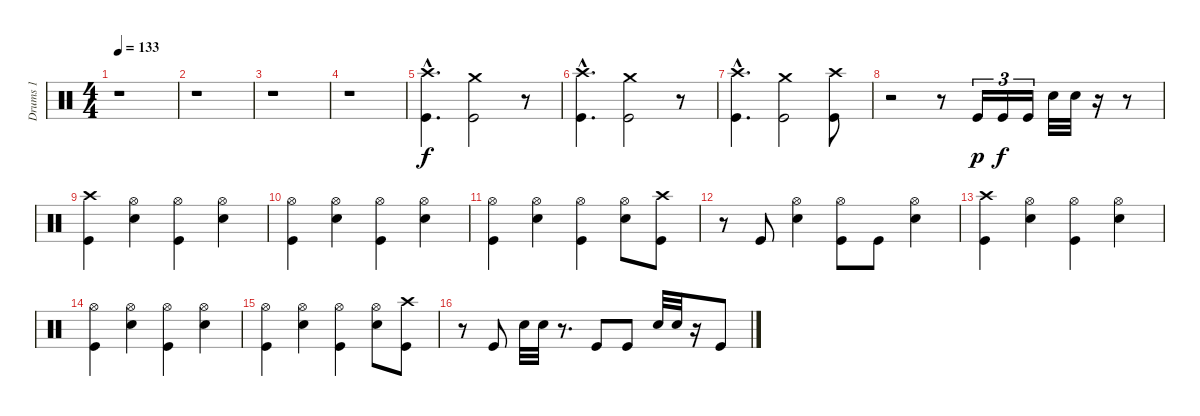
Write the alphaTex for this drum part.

\track ("Drums 1" "Drums 1") {instrument percussion}
\staff {score}
\articulation defaults
\ts (4 4)
\tempo 133
\clef neutral
\ks c
r.1{dy f} |
r.1 |
r.1 |
r.1 |
("Crash high (hit)"{hac} "Kick (hit)"{hac}).4{d} ("Crash medium (hit)" "Kick (hit)").2 r.8 |
("Crash high (hit)"{hac} "Kick (hit)"{hac}).4{d} ("Crash medium (hit)" "Kick (hit)").2 r.8 |
("Crash high (hit)"{hac} "Kick (hit)"{hac}).4{d} ("Crash medium (hit)" "Kick (hit)").2 ("Crash high (hit)" "Kick (hit)").8 |
r.2 r.8 "Kick (hit)".16{tu (3 2) dy p} "Kick (hit)".16{tu (3 2) dy f} "Kick (hit)".16{tu (3 2)} "Snare (hit) 2".32 "Snare (hit) 2".32 r.16 r.8 |
("Crash high (hit)" "Kick (hit)").4 ("Hi-Hat (open)" "Snare (hit) 2").4 ("Hi-Hat (open)" "Kick (hit)").4 ("Hi-Hat (open)" "Snare (hit) 2").4 |
("Hi-Hat (open)" "Kick (hit)").4 ("Hi-Hat (open)" "Snare (hit) 2").4 ("Hi-Hat (open)" "Kick (hit)").4 ("Hi-Hat (open)" "Snare (hit) 2").4 |
("Hi-Hat (open)" "Kick (hit)").4 ("Hi-Hat (open)" "Snare (hit) 2").4 ("Hi-Hat (open)" "Kick (hit)").4 ("Hi-Hat (open)" "Snare (hit) 2").8 ("Crash high (hit)" "Kick (hit)").8 |
r.8 "Kick (hit)".8 ("Hi-Hat (open)" "Snare (hit) 2").4 ("Hi-Hat (open)" "Kick (hit)").8 "Kick (hit)".8 ("Hi-Hat (open)" "Snare (hit) 2").4 |
("Crash high (hit)" "Kick (hit)").4 ("Hi-Hat (open)" "Snare (hit) 2").4 ("Hi-Hat (open)" "Kick (hit)").4 ("Hi-Hat (open)" "Snare (hit) 2").4 |
("Hi-Hat (open)" "Kick (hit)").4 ("Hi-Hat (open)" "Snare (hit) 2").4 ("Hi-Hat (open)" "Kick (hit)").4 ("Hi-Hat (open)" "Snare (hit) 2").4 |
("Hi-Hat (open)" "Kick (hit)").4 ("Hi-Hat (open)" "Snare (hit) 2").4 ("Hi-Hat (open)" "Kick (hit)").4 ("Hi-Hat (open)" "Snare (hit) 2").8 ("Crash high (hit)" "Kick (hit)").8 |
r.8 "Kick (hit)".8 "Snare (hit) 2".32 "Snare (hit) 2".32 r.8{d} "Kick (hit)".8 "Kick (hit)".8 "Snare (hit) 2".32 "Snare (hit) 2".32 r.16 "Kick (hit)".8
